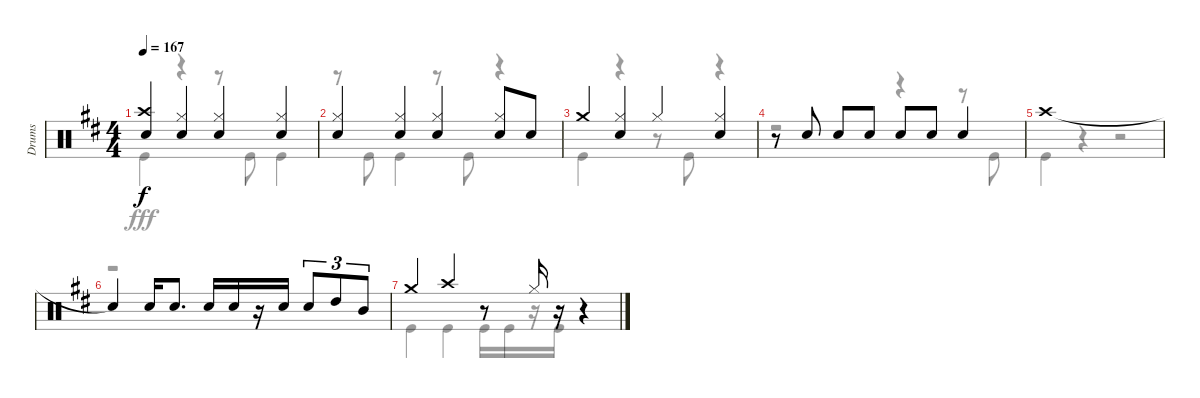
\track ("Drums" "Drums") {instrument percussion}
\staff {score}
\articulation defaults
\voice
\ts (4 4)
\tempo 167
\clef neutral
\ks d
("Crash high (hit)" "Snare (hit) 2").4{dy f} ("Hi-Hat (closed)" "Snare (hit) 2").4 ("Hi-Hat (closed)" "Snare (hit) 2").4 ("Hi-Hat (closed)" "Snare (hit) 2").4 |
("Hi-Hat (closed)" "Snare (hit) 2").4 ("Hi-Hat (closed)" "Snare (hit) 2").4 ("Hi-Hat (closed)" "Snare (hit) 2").4 ("Hi-Hat (closed)" "Snare (hit) 2").8 "Snare (hit) 2".8 |
"Crash medium (hit)".4 ("Hi-Hat (closed)" "Snare (hit) 2").4 "Hi-Hat (closed)".4 ("Hi-Hat (closed)" "Snare (hit) 2").4 |
r.8 "Snare (hit) 2".8 "Snare (hit) 2".8 "Snare (hit) 2".8 "Snare (hit) 2".8 "Snare (hit) 2".8 "Snare (hit) 2".4 |
"Crash high (hit)".1 |
"Snare (hit)"{t}.4 "Snare (hit) 2".16 "Snare (hit) 2".8{d} "Snare (hit) 2".16 "Snare (hit) 2".16 r.16 "Snare (hit) 2".16 "Snare (hit) 2".8{tu (3 2)} "High Tom (hit)".8{tu (3 2)} "Mid Tom (hit)".8{tu (3 2)} |
"Crash medium (hit)".4 "Crash high (hit)".4 r.8 "Hi-Hat (closed)".16 r.16 r.4
\voice
\clef neutral
\ottava regular
\simile none
\ks d "Kick (hit)".4{dy fff}
r.4 r.8 "Kick (hit)".8 "Kick (hit)".4 |
r.8 "Kick (hit)".8 "Kick (hit)".4 r.8 "Kick (hit)".8 r.4 |
"Kick (hit)".4 r.4 r.8 "Kick (hit)".8 r.4 |
r.2 r.4 r.8 "Kick (hit)".8 |
"Kick (hit)".4 r.4 r.2 |
r.1 |
"Kick (hit)".4 "Kick (hit)".4 "Kick (hit)".16 "Kick (hit)".16 r.16 "Kick (hit)".16 r.4
